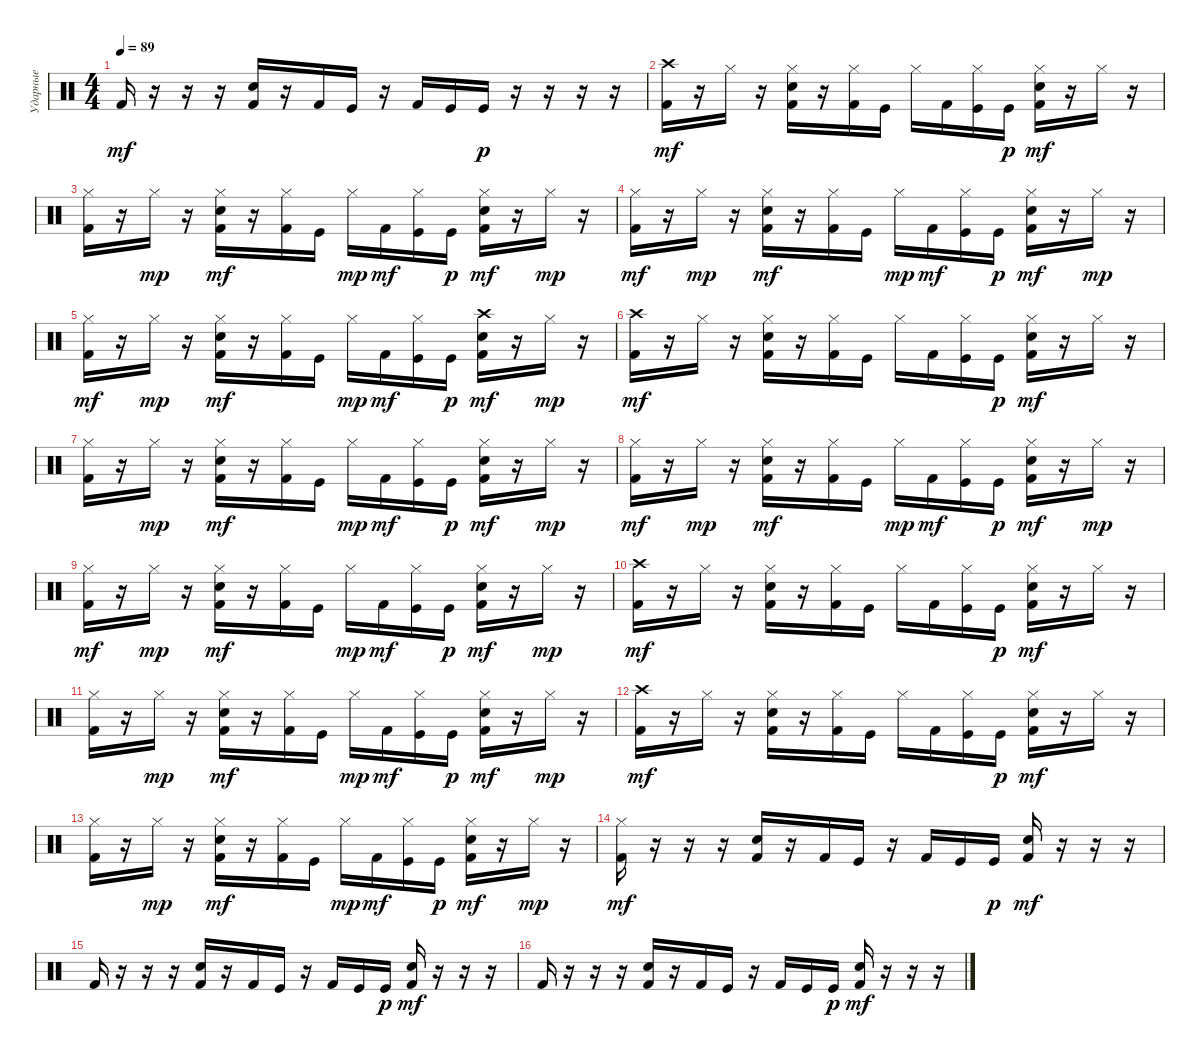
\track ("Ударные" "Ударные") {instrument percussion}
\staff {score}
\articulation defaults
\ts (4 4)
\tempo 89
\clef neutral
\ks c "Kick (hit) 2".16{dy mf}
r.16 r.16 r.16 ("Snare (hit) 2" "Kick (hit) 2").16 r.16 "Kick (hit) 2".16 "Kick (hit)".16 r.16 "Kick (hit) 2".16 "Kick (hit)".16 "Kick (hit)".16{dy p} r.16 r.16 r.16 r.16 |
("Crash high (hit)" "Kick (hit) 2").16{dy mf} r.16 "Hi-Hat (closed)".16 r.16 ("Hi-Hat (closed)" "Snare (hit) 2" "Kick (hit) 2").16 r.16 ("Hi-Hat (closed)" "Kick (hit) 2").16 "Kick (hit)".16 "Hi-Hat (closed)".16 "Kick (hit) 2".16 ("Hi-Hat (closed)" "Kick (hit)").16 "Kick (hit)".16{dy p} ("Hi-Hat (closed)" "Snare (hit) 2" "Kick (hit) 2").16{dy mf} r.16 "Hi-Hat (closed)".16 r.16 |
("Hi-Hat (closed)" "Kick (hit) 2").16 r.16 "Hi-Hat (closed)".16{dy mp} r.16 ("Hi-Hat (closed)" "Snare (hit) 2" "Kick (hit) 2").16{dy mf} r.16 ("Hi-Hat (closed)" "Kick (hit) 2").16 "Kick (hit)".16 "Hi-Hat (closed)".16{dy mp} "Kick (hit) 2".16{dy mf} ("Hi-Hat (closed)" "Kick (hit)").16 "Kick (hit)".16{dy p} ("Hi-Hat (closed)" "Snare (hit) 2" "Kick (hit) 2").16{dy mf} r.16 "Hi-Hat (closed)".16{dy mp} r.16 |
("Hi-Hat (closed)" "Kick (hit) 2").16{dy mf} r.16 "Hi-Hat (closed)".16{dy mp} r.16 ("Hi-Hat (closed)" "Snare (hit) 2" "Kick (hit) 2").16{dy mf} r.16 ("Hi-Hat (closed)" "Kick (hit) 2").16 "Kick (hit)".16 "Hi-Hat (closed)".16{dy mp} "Kick (hit) 2".16{dy mf} ("Hi-Hat (closed)" "Kick (hit)").16 "Kick (hit)".16{dy p} ("Hi-Hat (closed)" "Snare (hit) 2" "Kick (hit) 2").16{dy mf} r.16 "Hi-Hat (closed)".16{dy mp} r.16 |
("Hi-Hat (closed)" "Kick (hit) 2").16{dy mf} r.16 "Hi-Hat (closed)".16{dy mp} r.16 ("Hi-Hat (closed)" "Snare (hit) 2" "Kick (hit) 2").16{dy mf} r.16 ("Hi-Hat (closed)" "Kick (hit) 2").16 "Kick (hit)".16 "Hi-Hat (closed)".16{dy mp} "Kick (hit) 2".16{dy mf} ("Hi-Hat (closed)" "Kick (hit)").16 "Kick (hit)".16{dy p} ("Crash high (hit)" "Snare (hit) 2" "Kick (hit) 2").16{dy mf} r.16 "Hi-Hat (closed)".16{dy mp} r.16 |
("Crash high (hit)" "Kick (hit) 2").16{dy mf} r.16 "Hi-Hat (closed)".16 r.16 ("Hi-Hat (closed)" "Snare (hit) 2" "Kick (hit) 2").16 r.16 ("Hi-Hat (closed)" "Kick (hit) 2").16 "Kick (hit)".16 "Hi-Hat (closed)".16 "Kick (hit) 2".16 ("Hi-Hat (closed)" "Kick (hit)").16 "Kick (hit)".16{dy p} ("Hi-Hat (closed)" "Snare (hit) 2" "Kick (hit) 2").16{dy mf} r.16 "Hi-Hat (closed)".16 r.16 |
("Hi-Hat (closed)" "Kick (hit) 2").16 r.16 "Hi-Hat (closed)".16{dy mp} r.16 ("Hi-Hat (closed)" "Snare (hit) 2" "Kick (hit) 2").16{dy mf} r.16 ("Hi-Hat (closed)" "Kick (hit) 2").16 "Kick (hit)".16 "Hi-Hat (closed)".16{dy mp} "Kick (hit) 2".16{dy mf} ("Hi-Hat (closed)" "Kick (hit)").16 "Kick (hit)".16{dy p} ("Hi-Hat (closed)" "Snare (hit) 2" "Kick (hit) 2").16{dy mf} r.16 "Hi-Hat (closed)".16{dy mp} r.16 |
("Hi-Hat (closed)" "Kick (hit) 2").16{dy mf} r.16 "Hi-Hat (closed)".16{dy mp} r.16 ("Hi-Hat (closed)" "Snare (hit) 2" "Kick (hit) 2").16{dy mf} r.16 ("Hi-Hat (closed)" "Kick (hit) 2").16 "Kick (hit)".16 "Hi-Hat (closed)".16{dy mp} "Kick (hit) 2".16{dy mf} ("Hi-Hat (closed)" "Kick (hit)").16 "Kick (hit)".16{dy p} ("Hi-Hat (closed)" "Snare (hit) 2" "Kick (hit) 2").16{dy mf} r.16 "Hi-Hat (closed)".16{dy mp} r.16 |
("Hi-Hat (closed)" "Kick (hit) 2").16{dy mf} r.16 "Hi-Hat (closed)".16{dy mp} r.16 ("Hi-Hat (closed)" "Snare (hit) 2" "Kick (hit) 2").16{dy mf} r.16 ("Hi-Hat (closed)" "Kick (hit) 2").16 "Kick (hit)".16 "Hi-Hat (closed)".16{dy mp} "Kick (hit) 2".16{dy mf} ("Hi-Hat (closed)" "Kick (hit)").16 "Kick (hit)".16{dy p} ("Hi-Hat (closed)" "Snare (hit) 2" "Kick (hit) 2").16{dy mf} r.16 "Hi-Hat (closed)".16{dy mp} r.16 |
("Crash high (hit)" "Kick (hit) 2").16{dy mf} r.16 "Hi-Hat (closed)".16 r.16 ("Hi-Hat (closed)" "Snare (hit) 2" "Kick (hit) 2").16 r.16 ("Hi-Hat (closed)" "Kick (hit) 2").16 "Kick (hit)".16 "Hi-Hat (closed)".16 "Kick (hit) 2".16 ("Hi-Hat (closed)" "Kick (hit)").16 "Kick (hit)".16{dy p} ("Hi-Hat (closed)" "Snare (hit) 2" "Kick (hit) 2").16{dy mf} r.16 "Hi-Hat (closed)".16 r.16 |
("Hi-Hat (closed)" "Kick (hit) 2").16 r.16 "Hi-Hat (closed)".16{dy mp} r.16 ("Hi-Hat (closed)" "Snare (hit) 2" "Kick (hit) 2").16{dy mf} r.16 ("Hi-Hat (closed)" "Kick (hit) 2").16 "Kick (hit)".16 "Hi-Hat (closed)".16{dy mp} "Kick (hit) 2".16{dy mf} ("Hi-Hat (closed)" "Kick (hit)").16 "Kick (hit)".16{dy p} ("Hi-Hat (closed)" "Snare (hit) 2" "Kick (hit) 2").16{dy mf} r.16 "Hi-Hat (closed)".16{dy mp} r.16 |
("Crash high (hit)" "Kick (hit) 2").16{dy mf} r.16 "Hi-Hat (closed)".16 r.16 ("Hi-Hat (closed)" "Snare (hit) 2" "Kick (hit) 2").16 r.16 ("Hi-Hat (closed)" "Kick (hit) 2").16 "Kick (hit)".16 "Hi-Hat (closed)".16 "Kick (hit) 2".16 ("Hi-Hat (closed)" "Kick (hit)").16 "Kick (hit)".16{dy p} ("Hi-Hat (closed)" "Snare (hit) 2" "Kick (hit) 2").16{dy mf} r.16 "Hi-Hat (closed)".16 r.16 |
("Hi-Hat (closed)" "Kick (hit) 2").16 r.16 "Hi-Hat (closed)".16{dy mp} r.16 ("Hi-Hat (closed)" "Snare (hit) 2" "Kick (hit) 2").16{dy mf} r.16 ("Hi-Hat (closed)" "Kick (hit) 2").16 "Kick (hit)".16 "Hi-Hat (closed)".16{dy mp} "Kick (hit) 2".16{dy mf} ("Hi-Hat (closed)" "Kick (hit)").16 "Kick (hit)".16{dy p} ("Hi-Hat (closed)" "Snare (hit) 2" "Kick (hit) 2").16{dy mf} r.16 "Hi-Hat (closed)".16{dy mp} r.16 |
("Hi-Hat (closed)" "Kick (hit) 2").16{dy mf} r.16 r.16 r.16 ("Snare (hit) 2" "Kick (hit) 2").16 r.16 "Kick (hit) 2".16 "Kick (hit)".16 r.16 "Kick (hit) 2".16 "Kick (hit)".16 "Kick (hit)".16{dy p} ("Snare (hit) 2" "Kick (hit) 2").16{dy mf} r.16 r.16 r.16 |
"Kick (hit) 2".16 r.16 r.16 r.16 ("Snare (hit) 2" "Kick (hit) 2").16 r.16 "Kick (hit) 2".16 "Kick (hit)".16 r.16 "Kick (hit) 2".16 "Kick (hit)".16 "Kick (hit)".16{dy p} ("Snare (hit) 2" "Kick (hit) 2").16{dy mf} r.16 r.16 r.16 |
"Kick (hit) 2".16 r.16 r.16 r.16 ("Snare (hit) 2" "Kick (hit) 2").16 r.16 "Kick (hit) 2".16 "Kick (hit)".16 r.16 "Kick (hit) 2".16 "Kick (hit)".16 "Kick (hit)".16{dy p} ("Snare (hit) 2" "Kick (hit) 2").16{dy mf} r.16 r.16 r.16
